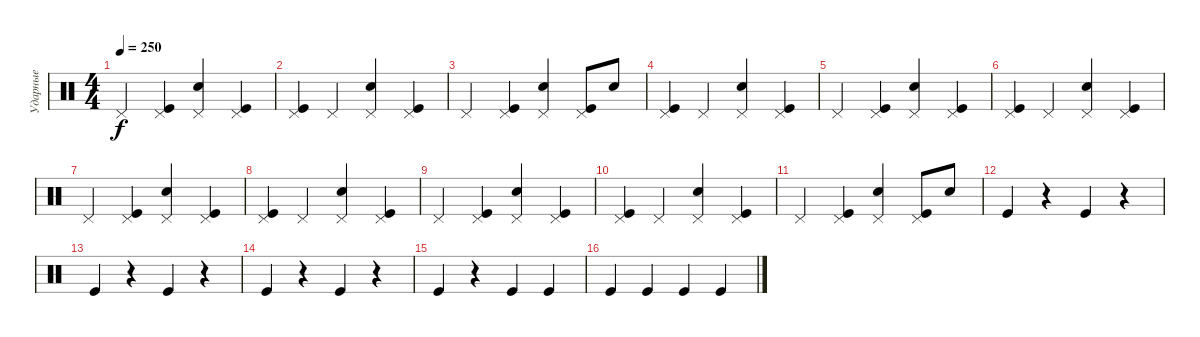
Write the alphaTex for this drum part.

\track ("Ударные" "Ударные") {instrument percussion}
\staff {score}
\articulation defaults
\ts (4 4)
\tempo 250
\clef neutral
\ks c "Pedal Hi-Hat (hit)".4{dy f}
("Kick (hit)" "Pedal Hi-Hat (hit)").4 ("Electric Snare (hit)" "Pedal Hi-Hat (hit)").4 ("Kick (hit)" "Pedal Hi-Hat (hit)").4 |
("Kick (hit)" "Pedal Hi-Hat (hit)").4 "Pedal Hi-Hat (hit)".4 ("Electric Snare (hit)" "Pedal Hi-Hat (hit)").4 ("Kick (hit)" "Pedal Hi-Hat (hit)").4 |
"Pedal Hi-Hat (hit)".4 ("Kick (hit)" "Pedal Hi-Hat (hit)").4 ("Electric Snare (hit)" "Pedal Hi-Hat (hit)").4 ("Kick (hit)" "Pedal Hi-Hat (hit)").8 "Electric Snare (hit)".8 |
("Kick (hit)" "Pedal Hi-Hat (hit)").4 "Pedal Hi-Hat (hit)".4 ("Electric Snare (hit)" "Pedal Hi-Hat (hit)").4 ("Kick (hit)" "Pedal Hi-Hat (hit)").4 |
"Pedal Hi-Hat (hit)".4 ("Kick (hit)" "Pedal Hi-Hat (hit)").4 ("Electric Snare (hit)" "Pedal Hi-Hat (hit)").4 ("Kick (hit)" "Pedal Hi-Hat (hit)").4 |
("Kick (hit)" "Pedal Hi-Hat (hit)").4 "Pedal Hi-Hat (hit)".4 ("Electric Snare (hit)" "Pedal Hi-Hat (hit)").4 ("Kick (hit)" "Pedal Hi-Hat (hit)").4 |
"Pedal Hi-Hat (hit)".4 ("Kick (hit)" "Pedal Hi-Hat (hit)").4 ("Electric Snare (hit)" "Pedal Hi-Hat (hit)").4 ("Kick (hit)" "Pedal Hi-Hat (hit)").4 |
("Kick (hit)" "Pedal Hi-Hat (hit)").4 "Pedal Hi-Hat (hit)".4 ("Electric Snare (hit)" "Pedal Hi-Hat (hit)").4 ("Kick (hit)" "Pedal Hi-Hat (hit)").4 |
"Pedal Hi-Hat (hit)".4 ("Kick (hit)" "Pedal Hi-Hat (hit)").4 ("Electric Snare (hit)" "Pedal Hi-Hat (hit)").4 ("Kick (hit)" "Pedal Hi-Hat (hit)").4 |
("Kick (hit)" "Pedal Hi-Hat (hit)").4 "Pedal Hi-Hat (hit)".4 ("Electric Snare (hit)" "Pedal Hi-Hat (hit)").4 ("Kick (hit)" "Pedal Hi-Hat (hit)").4 |
"Pedal Hi-Hat (hit)".4 ("Kick (hit)" "Pedal Hi-Hat (hit)").4 ("Electric Snare (hit)" "Pedal Hi-Hat (hit)").4 ("Kick (hit)" "Pedal Hi-Hat (hit)").8 "Electric Snare (hit)".8 |
"Kick (hit)".4 r.4 "Kick (hit)".4 r.4 |
"Kick (hit)".4 r.4 "Kick (hit)".4 r.4 |
"Kick (hit)".4 r.4 "Kick (hit)".4 r.4 |
"Kick (hit)".4 r.4 "Kick (hit)".4 "Kick (hit)".4 |
"Kick (hit)".4 "Kick (hit)".4 "Kick (hit)".4 "Kick (hit)".4
